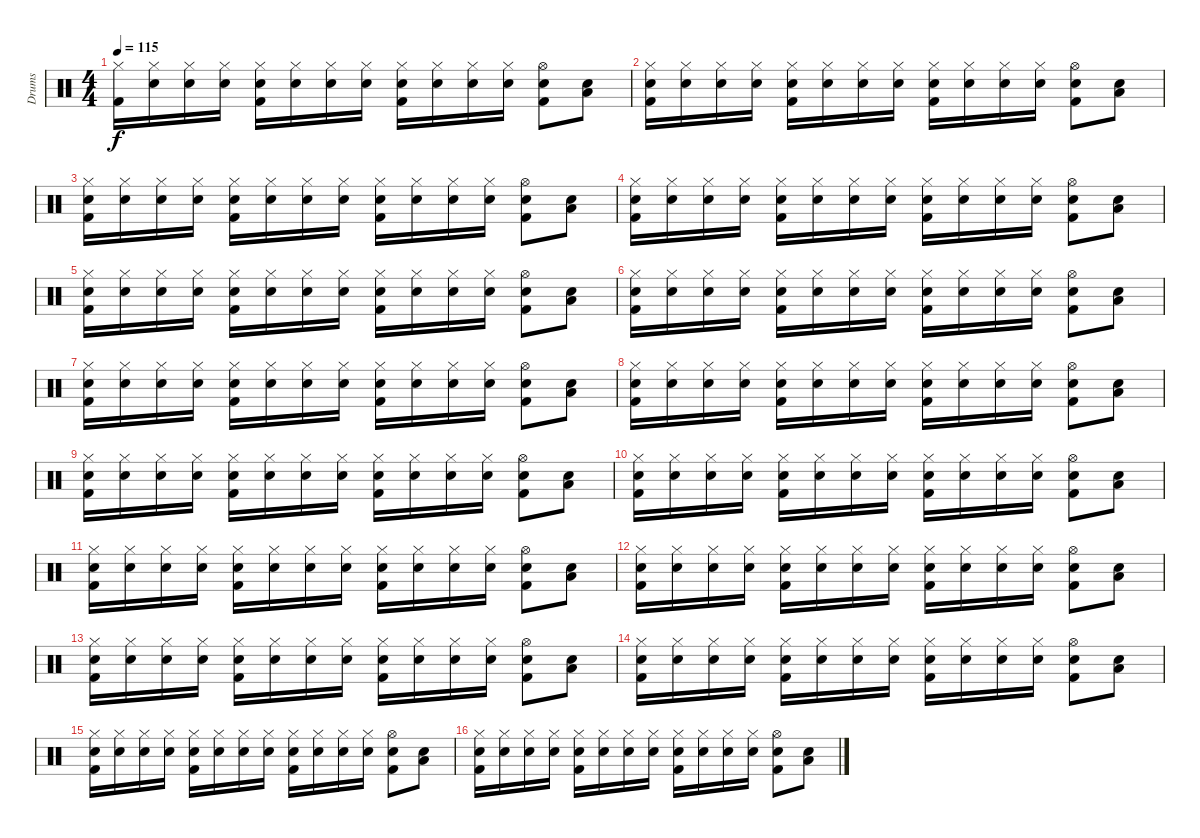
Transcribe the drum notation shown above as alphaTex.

\track ("Drums" "Drums") {instrument percussion}
\staff {score}
\articulation defaults
\ts (4 4)
\tempo 115
\clef neutral
\ks c
("Kick (hit) 2" "Hi-Hat (closed)").16{dy f} ("Snare (hit)" "Hi-Hat (closed)").16 ("Snare (hit)" "Hi-Hat (closed)").16 ("Snare (hit)" "Hi-Hat (closed)").16 ("Snare (hit)" "Kick (hit) 2" "Hi-Hat (closed)").16 ("Snare (hit)" "Hi-Hat (closed)").16 ("Snare (hit)" "Hi-Hat (closed)").16 ("Snare (hit)" "Hi-Hat (closed)").16 ("Snare (hit)" "Kick (hit) 2" "Hi-Hat (closed)").16 ("Snare (hit)" "Hi-Hat (closed)").16 ("Snare (hit)" "Hi-Hat (closed)").16 ("Snare (hit)" "Hi-Hat (closed)").16 ("Snare (hit)" "Kick (hit) 2" "Hi-Hat (open)").8 ("Snare (hit)" "Low Tom (hit)").8 |
("Snare (hit)" "Kick (hit) 2" "Hi-Hat (closed)").16 ("Snare (hit)" "Hi-Hat (closed)").16 ("Snare (hit)" "Hi-Hat (closed)").16 ("Snare (hit)" "Hi-Hat (closed)").16 ("Snare (hit)" "Kick (hit) 2" "Hi-Hat (closed)").16 ("Snare (hit)" "Hi-Hat (closed)").16 ("Snare (hit)" "Hi-Hat (closed)").16 ("Snare (hit)" "Hi-Hat (closed)").16 ("Snare (hit)" "Kick (hit) 2" "Hi-Hat (closed)").16 ("Snare (hit)" "Hi-Hat (closed)").16 ("Snare (hit)" "Hi-Hat (closed)").16 ("Snare (hit)" "Hi-Hat (closed)").16 ("Snare (hit)" "Kick (hit) 2" "Hi-Hat (open)").8 ("Snare (hit)" "Low Tom (hit)").8 |
("Snare (hit)" "Kick (hit) 2" "Hi-Hat (closed)").16 ("Snare (hit)" "Hi-Hat (closed)").16 ("Snare (hit)" "Hi-Hat (closed)").16 ("Snare (hit)" "Hi-Hat (closed)").16 ("Snare (hit)" "Kick (hit) 2" "Hi-Hat (closed)").16 ("Snare (hit)" "Hi-Hat (closed)").16 ("Snare (hit)" "Hi-Hat (closed)").16 ("Snare (hit)" "Hi-Hat (closed)").16 ("Snare (hit)" "Kick (hit) 2" "Hi-Hat (closed)").16 ("Snare (hit)" "Hi-Hat (closed)").16 ("Snare (hit)" "Hi-Hat (closed)").16 ("Snare (hit)" "Hi-Hat (closed)").16 ("Snare (hit)" "Kick (hit) 2" "Hi-Hat (open)").8 ("Snare (hit)" "Low Tom (hit)").8 |
("Snare (hit)" "Kick (hit) 2" "Hi-Hat (closed)").16 ("Snare (hit)" "Hi-Hat (closed)").16 ("Snare (hit)" "Hi-Hat (closed)").16 ("Snare (hit)" "Hi-Hat (closed)").16 ("Snare (hit)" "Kick (hit) 2" "Hi-Hat (closed)").16 ("Snare (hit)" "Hi-Hat (closed)").16 ("Snare (hit)" "Hi-Hat (closed)").16 ("Snare (hit)" "Hi-Hat (closed)").16 ("Snare (hit)" "Kick (hit) 2" "Hi-Hat (closed)").16 ("Snare (hit)" "Hi-Hat (closed)").16 ("Snare (hit)" "Hi-Hat (closed)").16 ("Snare (hit)" "Hi-Hat (closed)").16 ("Snare (hit)" "Kick (hit) 2" "Hi-Hat (open)").8 ("Snare (hit)" "Low Tom (hit)").8 |
("Snare (hit)" "Kick (hit) 2" "Hi-Hat (closed)").16 ("Snare (hit)" "Hi-Hat (closed)").16 ("Snare (hit)" "Hi-Hat (closed)").16 ("Snare (hit)" "Hi-Hat (closed)").16 ("Snare (hit)" "Kick (hit) 2" "Hi-Hat (closed)").16 ("Snare (hit)" "Hi-Hat (closed)").16 ("Snare (hit)" "Hi-Hat (closed)").16 ("Snare (hit)" "Hi-Hat (closed)").16 ("Snare (hit)" "Kick (hit) 2" "Hi-Hat (closed)").16 ("Snare (hit)" "Hi-Hat (closed)").16 ("Snare (hit)" "Hi-Hat (closed)").16 ("Snare (hit)" "Hi-Hat (closed)").16 ("Snare (hit)" "Kick (hit) 2" "Hi-Hat (open)").8 ("Snare (hit)" "Low Tom (hit)").8 |
("Snare (hit)" "Kick (hit) 2" "Hi-Hat (closed)").16 ("Snare (hit)" "Hi-Hat (closed)").16 ("Snare (hit)" "Hi-Hat (closed)").16 ("Snare (hit)" "Hi-Hat (closed)").16 ("Snare (hit)" "Kick (hit) 2" "Hi-Hat (closed)").16 ("Snare (hit)" "Hi-Hat (closed)").16 ("Snare (hit)" "Hi-Hat (closed)").16 ("Snare (hit)" "Hi-Hat (closed)").16 ("Snare (hit)" "Kick (hit) 2" "Hi-Hat (closed)").16 ("Snare (hit)" "Hi-Hat (closed)").16 ("Snare (hit)" "Hi-Hat (closed)").16 ("Snare (hit)" "Hi-Hat (closed)").16 ("Snare (hit)" "Kick (hit) 2" "Hi-Hat (open)").8 ("Snare (hit)" "Low Tom (hit)").8 |
("Snare (hit)" "Kick (hit) 2" "Hi-Hat (closed)").16 ("Snare (hit)" "Hi-Hat (closed)").16 ("Snare (hit)" "Hi-Hat (closed)").16 ("Snare (hit)" "Hi-Hat (closed)").16 ("Snare (hit)" "Kick (hit) 2" "Hi-Hat (closed)").16 ("Snare (hit)" "Hi-Hat (closed)").16 ("Snare (hit)" "Hi-Hat (closed)").16 ("Snare (hit)" "Hi-Hat (closed)").16 ("Snare (hit)" "Kick (hit) 2" "Hi-Hat (closed)").16 ("Snare (hit)" "Hi-Hat (closed)").16 ("Snare (hit)" "Hi-Hat (closed)").16 ("Snare (hit)" "Hi-Hat (closed)").16 ("Snare (hit)" "Kick (hit) 2" "Hi-Hat (open)").8 ("Snare (hit)" "Low Tom (hit)").8 |
("Snare (hit)" "Kick (hit) 2" "Hi-Hat (closed)").16 ("Snare (hit)" "Hi-Hat (closed)").16 ("Snare (hit)" "Hi-Hat (closed)").16 ("Snare (hit)" "Hi-Hat (closed)").16 ("Snare (hit)" "Kick (hit) 2" "Hi-Hat (closed)").16 ("Snare (hit)" "Hi-Hat (closed)").16 ("Snare (hit)" "Hi-Hat (closed)").16 ("Snare (hit)" "Hi-Hat (closed)").16 ("Snare (hit)" "Kick (hit) 2" "Hi-Hat (closed)").16 ("Snare (hit)" "Hi-Hat (closed)").16 ("Snare (hit)" "Hi-Hat (closed)").16 ("Snare (hit)" "Hi-Hat (closed)").16 ("Snare (hit)" "Kick (hit) 2" "Hi-Hat (open)").8 ("Snare (hit)" "Low Tom (hit)").8 |
("Snare (hit)" "Kick (hit) 2" "Hi-Hat (closed)").16 ("Snare (hit)" "Hi-Hat (closed)").16 ("Snare (hit)" "Hi-Hat (closed)").16 ("Snare (hit)" "Hi-Hat (closed)").16 ("Snare (hit)" "Kick (hit) 2" "Hi-Hat (closed)").16 ("Snare (hit)" "Hi-Hat (closed)").16 ("Snare (hit)" "Hi-Hat (closed)").16 ("Snare (hit)" "Hi-Hat (closed)").16 ("Snare (hit)" "Kick (hit) 2" "Hi-Hat (closed)").16 ("Snare (hit)" "Hi-Hat (closed)").16 ("Snare (hit)" "Hi-Hat (closed)").16 ("Snare (hit)" "Hi-Hat (closed)").16 ("Snare (hit)" "Kick (hit) 2" "Hi-Hat (open)").8 ("Snare (hit)" "Low Tom (hit)").8 |
("Snare (hit)" "Kick (hit) 2" "Hi-Hat (closed)").16 ("Snare (hit)" "Hi-Hat (closed)").16 ("Snare (hit)" "Hi-Hat (closed)").16 ("Snare (hit)" "Hi-Hat (closed)").16 ("Snare (hit)" "Kick (hit) 2" "Hi-Hat (closed)").16 ("Snare (hit)" "Hi-Hat (closed)").16 ("Snare (hit)" "Hi-Hat (closed)").16 ("Snare (hit)" "Hi-Hat (closed)").16 ("Snare (hit)" "Kick (hit) 2" "Hi-Hat (closed)").16 ("Snare (hit)" "Hi-Hat (closed)").16 ("Snare (hit)" "Hi-Hat (closed)").16 ("Snare (hit)" "Hi-Hat (closed)").16 ("Snare (hit)" "Kick (hit) 2" "Hi-Hat (open)").8 ("Snare (hit)" "Low Tom (hit)").8 |
("Snare (hit)" "Kick (hit) 2" "Hi-Hat (closed)").16 ("Snare (hit)" "Hi-Hat (closed)").16 ("Snare (hit)" "Hi-Hat (closed)").16 ("Snare (hit)" "Hi-Hat (closed)").16 ("Snare (hit)" "Kick (hit) 2" "Hi-Hat (closed)").16 ("Snare (hit)" "Hi-Hat (closed)").16 ("Snare (hit)" "Hi-Hat (closed)").16 ("Snare (hit)" "Hi-Hat (closed)").16 ("Snare (hit)" "Kick (hit) 2" "Hi-Hat (closed)").16 ("Snare (hit)" "Hi-Hat (closed)").16 ("Snare (hit)" "Hi-Hat (closed)").16 ("Snare (hit)" "Hi-Hat (closed)").16 ("Snare (hit)" "Kick (hit) 2" "Hi-Hat (open)").8 ("Snare (hit)" "Low Tom (hit)").8 |
("Snare (hit)" "Kick (hit) 2" "Hi-Hat (closed)").16 ("Snare (hit)" "Hi-Hat (closed)").16 ("Snare (hit)" "Hi-Hat (closed)").16 ("Snare (hit)" "Hi-Hat (closed)").16 ("Snare (hit)" "Kick (hit) 2" "Hi-Hat (closed)").16 ("Snare (hit)" "Hi-Hat (closed)").16 ("Snare (hit)" "Hi-Hat (closed)").16 ("Snare (hit)" "Hi-Hat (closed)").16 ("Snare (hit)" "Kick (hit) 2" "Hi-Hat (closed)").16 ("Snare (hit)" "Hi-Hat (closed)").16 ("Snare (hit)" "Hi-Hat (closed)").16 ("Snare (hit)" "Hi-Hat (closed)").16 ("Snare (hit)" "Kick (hit) 2" "Hi-Hat (open)").8 ("Snare (hit)" "Low Tom (hit)").8 |
("Snare (hit)" "Kick (hit) 2" "Hi-Hat (closed)").16 ("Snare (hit)" "Hi-Hat (closed)").16 ("Snare (hit)" "Hi-Hat (closed)").16 ("Snare (hit)" "Hi-Hat (closed)").16 ("Snare (hit)" "Kick (hit) 2" "Hi-Hat (closed)").16 ("Snare (hit)" "Hi-Hat (closed)").16 ("Snare (hit)" "Hi-Hat (closed)").16 ("Snare (hit)" "Hi-Hat (closed)").16 ("Snare (hit)" "Kick (hit) 2" "Hi-Hat (closed)").16 ("Snare (hit)" "Hi-Hat (closed)").16 ("Snare (hit)" "Hi-Hat (closed)").16 ("Snare (hit)" "Hi-Hat (closed)").16 ("Snare (hit)" "Kick (hit) 2" "Hi-Hat (open)").8 ("Snare (hit)" "Low Tom (hit)").8 |
("Snare (hit)" "Kick (hit) 2" "Hi-Hat (closed)").16 ("Snare (hit)" "Hi-Hat (closed)").16 ("Snare (hit)" "Hi-Hat (closed)").16 ("Snare (hit)" "Hi-Hat (closed)").16 ("Snare (hit)" "Kick (hit) 2" "Hi-Hat (closed)").16 ("Snare (hit)" "Hi-Hat (closed)").16 ("Snare (hit)" "Hi-Hat (closed)").16 ("Snare (hit)" "Hi-Hat (closed)").16 ("Snare (hit)" "Kick (hit) 2" "Hi-Hat (closed)").16 ("Snare (hit)" "Hi-Hat (closed)").16 ("Snare (hit)" "Hi-Hat (closed)").16 ("Snare (hit)" "Hi-Hat (closed)").16 ("Snare (hit)" "Kick (hit) 2" "Hi-Hat (open)").8 ("Snare (hit)" "Low Tom (hit)").8 |
("Snare (hit)" "Kick (hit) 2" "Hi-Hat (closed)").16 ("Snare (hit)" "Hi-Hat (closed)").16 ("Snare (hit)" "Hi-Hat (closed)").16 ("Snare (hit)" "Hi-Hat (closed)").16 ("Snare (hit)" "Kick (hit) 2" "Hi-Hat (closed)").16 ("Snare (hit)" "Hi-Hat (closed)").16 ("Snare (hit)" "Hi-Hat (closed)").16 ("Snare (hit)" "Hi-Hat (closed)").16 ("Snare (hit)" "Kick (hit) 2" "Hi-Hat (closed)").16 ("Snare (hit)" "Hi-Hat (closed)").16 ("Snare (hit)" "Hi-Hat (closed)").16 ("Snare (hit)" "Hi-Hat (closed)").16 ("Snare (hit)" "Kick (hit) 2" "Hi-Hat (open)").8 ("Snare (hit)" "Low Tom (hit)").8 |
("Snare (hit)" "Kick (hit) 2" "Hi-Hat (closed)").16 ("Snare (hit)" "Hi-Hat (closed)").16 ("Snare (hit)" "Hi-Hat (closed)").16 ("Snare (hit)" "Hi-Hat (closed)").16 ("Snare (hit)" "Kick (hit) 2" "Hi-Hat (closed)").16 ("Snare (hit)" "Hi-Hat (closed)").16 ("Snare (hit)" "Hi-Hat (closed)").16 ("Snare (hit)" "Hi-Hat (closed)").16 ("Snare (hit)" "Kick (hit) 2" "Hi-Hat (closed)").16 ("Snare (hit)" "Hi-Hat (closed)").16 ("Snare (hit)" "Hi-Hat (closed)").16 ("Snare (hit)" "Hi-Hat (closed)").16 ("Snare (hit)" "Kick (hit) 2" "Hi-Hat (open)").8 ("Snare (hit)" "Low Tom (hit)").8
